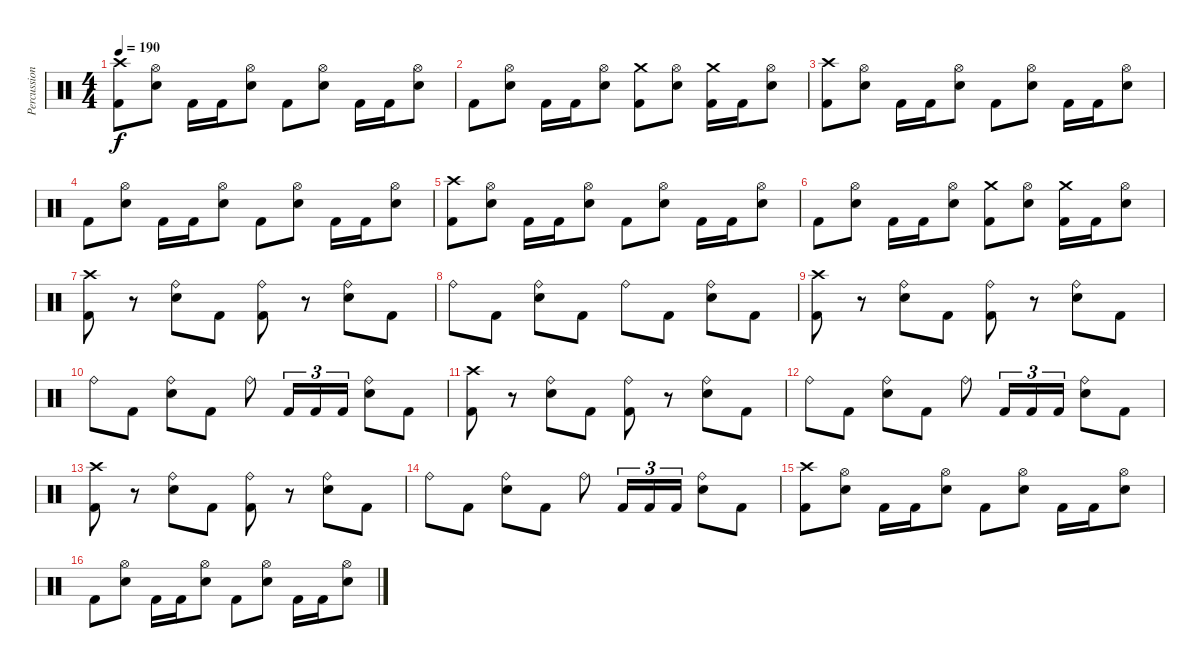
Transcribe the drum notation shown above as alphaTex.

\track ("Percussion" "Percussion") {instrument percussion}
\staff {score}
\articulation defaults
\ts (4 4)
\tempo 190
\clef neutral
\ks c
("Crash high (hit)" "Kick (hit) 2").8{dy f} ("Hi-Hat (open)" "Electric Snare (hit)").8 "Kick (hit) 2".16 "Kick (hit) 2".16 ("Hi-Hat (open)" "Electric Snare (hit)").8 "Kick (hit) 2".8 ("Hi-Hat (open)" "Electric Snare (hit)").8 "Kick (hit) 2".16 "Kick (hit) 2".16 ("Hi-Hat (open)" "Electric Snare (hit)").8 |
"Kick (hit) 2".8 ("Hi-Hat (open)" "Electric Snare (hit)").8 "Kick (hit) 2".16 "Kick (hit) 2".16 ("Hi-Hat (open)" "Electric Snare (hit)").8 ("Crash medium (hit)" "Kick (hit) 2").8 ("Hi-Hat (open)" "Electric Snare (hit)").8 ("Crash medium (hit)" "Kick (hit) 2").16 "Kick (hit) 2".16 ("Hi-Hat (open)" "Electric Snare (hit)").8 |
("Crash high (hit)" "Kick (hit) 2").8 ("Hi-Hat (open)" "Electric Snare (hit)").8 "Kick (hit) 2".16 "Kick (hit) 2".16 ("Hi-Hat (open)" "Electric Snare (hit)").8 "Kick (hit) 2".8 ("Hi-Hat (open)" "Electric Snare (hit)").8 "Kick (hit) 2".16 "Kick (hit) 2".16 ("Hi-Hat (open)" "Electric Snare (hit)").8 |
"Kick (hit) 2".8 ("Hi-Hat (open)" "Electric Snare (hit)").8 "Kick (hit) 2".16 "Kick (hit) 2".16 ("Hi-Hat (open)" "Electric Snare (hit)").8 "Kick (hit) 2".8 ("Hi-Hat (open)" "Electric Snare (hit)").8 "Kick (hit) 2".16 "Kick (hit) 2".16 ("Hi-Hat (open)" "Electric Snare (hit)").8 |
("Crash high (hit)" "Kick (hit) 2").8 ("Hi-Hat (open)" "Electric Snare (hit)").8 "Kick (hit) 2".16 "Kick (hit) 2".16 ("Hi-Hat (open)" "Electric Snare (hit)").8 "Kick (hit) 2".8 ("Hi-Hat (open)" "Electric Snare (hit)").8 "Kick (hit) 2".16 "Kick (hit) 2".16 ("Hi-Hat (open)" "Electric Snare (hit)").8 |
"Kick (hit) 2".8 ("Hi-Hat (open)" "Electric Snare (hit)").8 "Kick (hit) 2".16 "Kick (hit) 2".16 ("Hi-Hat (open)" "Electric Snare (hit)").8 ("Crash medium (hit)" "Kick (hit) 2").8 ("Hi-Hat (open)" "Electric Snare (hit)").8 ("Crash medium (hit)" "Kick (hit) 2").16 "Kick (hit) 2".16 ("Hi-Hat (open)" "Electric Snare (hit)").8 |
("Crash high (hit)" "Kick (hit) 2").8 r.8 ("Ride (bell)" "Electric Snare (hit)").8 "Kick (hit) 2".8 ("Ride (bell)" "Kick (hit) 2").8 r.8 ("Ride (bell)" "Electric Snare (hit)").8 "Kick (hit) 2".8 |
"Ride (bell)".8 "Kick (hit) 2".8 ("Ride (bell)" "Electric Snare (hit)").8 "Kick (hit) 2".8 "Ride (bell)".8 "Kick (hit) 2".8 ("Ride (bell)" "Electric Snare (hit)").8 "Kick (hit) 2".8 |
("Crash high (hit)" "Kick (hit) 2").8 r.8 ("Ride (bell)" "Electric Snare (hit)").8 "Kick (hit) 2".8 ("Ride (bell)" "Kick (hit) 2").8 r.8 ("Ride (bell)" "Electric Snare (hit)").8 "Kick (hit) 2".8 |
"Ride (bell)".8 "Kick (hit) 2".8 ("Ride (bell)" "Electric Snare (hit)").8 "Kick (hit) 2".8 "Ride (bell)".8 "Kick (hit) 2".16{tu (3 2)} "Kick (hit) 2".16{tu (3 2)} "Kick (hit) 2".16{tu (3 2)} ("Ride (bell)" "Electric Snare (hit)").8 "Kick (hit) 2".8 |
("Crash high (hit)" "Kick (hit) 2").8 r.8 ("Ride (bell)" "Electric Snare (hit)").8 "Kick (hit) 2".8 ("Ride (bell)" "Kick (hit) 2").8 r.8 ("Ride (bell)" "Electric Snare (hit)").8 "Kick (hit) 2".8 |
"Ride (bell)".8 "Kick (hit) 2".8 ("Ride (bell)" "Electric Snare (hit)").8 "Kick (hit) 2".8 "Ride (bell)".8 "Kick (hit) 2".16{tu (3 2)} "Kick (hit) 2".16{tu (3 2)} "Kick (hit) 2".16{tu (3 2)} ("Ride (bell)" "Electric Snare (hit)").8 "Kick (hit) 2".8 |
("Crash high (hit)" "Kick (hit) 2").8 r.8 ("Ride (bell)" "Electric Snare (hit)").8 "Kick (hit) 2".8 ("Ride (bell)" "Kick (hit) 2").8 r.8 ("Ride (bell)" "Electric Snare (hit)").8 "Kick (hit) 2".8 |
"Ride (bell)".8 "Kick (hit) 2".8 ("Ride (bell)" "Electric Snare (hit)").8 "Kick (hit) 2".8 "Ride (bell)".8 "Kick (hit) 2".16{tu (3 2)} "Kick (hit) 2".16{tu (3 2)} "Kick (hit) 2".16{tu (3 2)} ("Ride (bell)" "Electric Snare (hit)").8 "Kick (hit) 2".8 |
("Crash high (hit)" "Kick (hit) 2").8 ("Hi-Hat (open)" "Electric Snare (hit)").8 "Kick (hit) 2".16 "Kick (hit) 2".16 ("Hi-Hat (open)" "Electric Snare (hit)").8 "Kick (hit) 2".8 ("Hi-Hat (open)" "Electric Snare (hit)").8 "Kick (hit) 2".16 "Kick (hit) 2".16 ("Hi-Hat (open)" "Electric Snare (hit)").8 |
"Kick (hit) 2".8 ("Hi-Hat (open)" "Electric Snare (hit)").8 "Kick (hit) 2".16 "Kick (hit) 2".16 ("Hi-Hat (open)" "Electric Snare (hit)").8 "Kick (hit) 2".8 ("Hi-Hat (open)" "Electric Snare (hit)").8 "Kick (hit) 2".16 "Kick (hit) 2".16 ("Hi-Hat (open)" "Electric Snare (hit)").8
